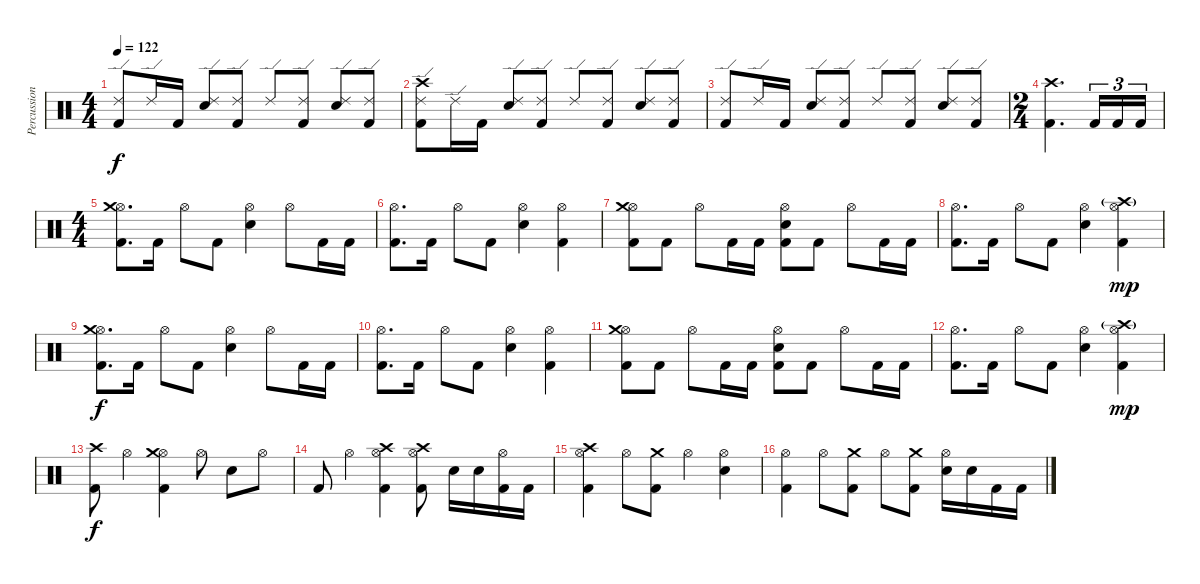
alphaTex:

\track ("Percussion" "Percussion") {instrument percussion}
\staff {score}
\articulation defaults
\ts (4 4)
\tempo 122
\clef neutral
\ks c
("Ride (edge) 2" "Kick (hit) 2").8{dy f} "Ride (edge) 2".16 "Kick (hit) 2".16 ("Ride (edge) 2" "Electric Snare (hit)").8 ("Ride (edge) 2" "Kick (hit) 2").8 "Ride (edge) 2".8 ("Ride (edge) 2" "Kick (hit) 2").8 ("Ride (edge) 2" "Electric Snare (hit)").8 ("Ride (edge) 2" "Kick (hit) 2").8 |
("Ride (edge) 2" "Crash high (hit)" "Kick (hit) 2").8 "Ride (edge) 2".16 "Kick (hit) 2".16 ("Ride (edge) 2" "Electric Snare (hit)").8 ("Ride (edge) 2" "Kick (hit) 2").8 "Ride (edge) 2".8 ("Ride (edge) 2" "Kick (hit) 2").8 ("Ride (edge) 2" "Electric Snare (hit)").8 ("Ride (edge) 2" "Kick (hit) 2").8 |
("Ride (edge) 2" "Kick (hit) 2").8 "Ride (edge) 2".16 "Kick (hit) 2".16 ("Ride (edge) 2" "Electric Snare (hit)").8 ("Ride (edge) 2" "Kick (hit) 2").8 "Ride (edge) 2".8 ("Ride (edge) 2" "Kick (hit) 2").8 ("Ride (edge) 2" "Electric Snare (hit)").8 ("Ride (edge) 2" "Kick (hit) 2").8 |
\ts (2 4)
("Crash high (hit)" "Kick (hit) 2").4{d} "Kick (hit) 2".16{tu (3 2)} "Kick (hit) 2".16{tu (3 2)} "Kick (hit) 2".16{tu (3 2)} |
\ts (4 4)
("Hi-Hat (open)" "Crash medium (hit)" "Kick (hit) 2").8{d} "Kick (hit) 2".16 "Hi-Hat (open)".8 "Kick (hit) 2".8 ("Hi-Hat (open)" "Electric Snare (hit)").4 "Hi-Hat (open)".8 "Kick (hit) 2".16 "Kick (hit) 2".16 |
("Hi-Hat (open)" "Kick (hit) 2").8{d} "Kick (hit) 2".16 "Hi-Hat (open)".8 "Kick (hit) 2".8 ("Hi-Hat (open)" "Electric Snare (hit)").4 ("Hi-Hat (open)" "Kick (hit) 2").4 |
("Hi-Hat (open)" "Crash medium (hit)" "Kick (hit) 2").8 "Kick (hit) 2".8 "Hi-Hat (open)".8 "Kick (hit) 2".16 "Kick (hit) 2".16 ("Hi-Hat (open)" "Electric Snare (hit)" "Kick (hit) 2").8 "Kick (hit) 2".8 "Hi-Hat (open)".8 "Kick (hit) 2".16 "Kick (hit) 2".16 |
("Hi-Hat (open)" "Kick (hit) 2").8{d} "Kick (hit) 2".16 "Hi-Hat (open)".8 "Kick (hit) 2".8 ("Hi-Hat (open)" "Electric Snare (hit)").4 ("Hi-Hat (open)" "Crash high (hit)"{g} "Kick (hit) 2").4{dy mp} |
("Hi-Hat (open)" "Crash medium (hit)" "Kick (hit) 2").8{d dy f} "Kick (hit) 2".16 "Hi-Hat (open)".8 "Kick (hit) 2".8 ("Hi-Hat (open)" "Electric Snare (hit)").4 "Hi-Hat (open)".8 "Kick (hit) 2".16 "Kick (hit) 2".16 |
("Hi-Hat (open)" "Kick (hit) 2").8{d} "Kick (hit) 2".16 "Hi-Hat (open)".8 "Kick (hit) 2".8 ("Hi-Hat (open)" "Electric Snare (hit)").4 ("Hi-Hat (open)" "Kick (hit) 2").4 |
("Hi-Hat (open)" "Crash medium (hit)" "Kick (hit) 2").8 "Kick (hit) 2".8 "Hi-Hat (open)".8 "Kick (hit) 2".16 "Kick (hit) 2".16 ("Hi-Hat (open)" "Electric Snare (hit)" "Kick (hit) 2").8 "Kick (hit) 2".8 "Hi-Hat (open)".8 "Kick (hit) 2".16 "Kick (hit) 2".16 |
("Hi-Hat (open)" "Kick (hit) 2").8{d} "Kick (hit) 2".16 "Hi-Hat (open)".8 "Kick (hit) 2".8 ("Hi-Hat (open)" "Electric Snare (hit)").4 ("Hi-Hat (open)" "Crash high (hit)"{g} "Kick (hit) 2").4{dy mp} |
("Crash high (hit)" "Kick (hit) 2").8{dy f} "Hi-Hat (open)".4 ("Hi-Hat (open)" "Crash medium (hit)" "Kick (hit) 2").4 "Hi-Hat (open)".8 "Electric Snare (hit)".8 "Hi-Hat (open)".8 |
"Kick (hit) 2".8 "Hi-Hat (open)".4 ("Hi-Hat (open)" "Crash high (hit)" "Kick (hit) 2").4 ("Hi-Hat (open)" "Crash high (hit)" "Kick (hit) 2").8 "Electric Snare (hit)".16 "Electric Snare (hit)".16 ("Hi-Hat (open)" "Kick (hit) 2").16 "Kick (hit) 2".16 |
("Hi-Hat (open)" "Crash high (hit)" "Kick (hit) 2").4 "Hi-Hat (open)".8 ("Crash medium (hit)" "Kick (hit) 2").8 "Hi-Hat (open)".4 ("Hi-Hat (open)" "Electric Snare (hit)").4 |
("Hi-Hat (open)" "Kick (hit) 2").4 "Hi-Hat (open)".8 ("Crash medium (hit)" "Kick (hit) 2").8 "Hi-Hat (open)".8 ("Crash medium (hit)" "Kick (hit) 2").8 ("Hi-Hat (open)" "Electric Snare (hit)").16 "Electric Snare (hit)".16 "Kick (hit) 2".16 "Kick (hit) 2".16
